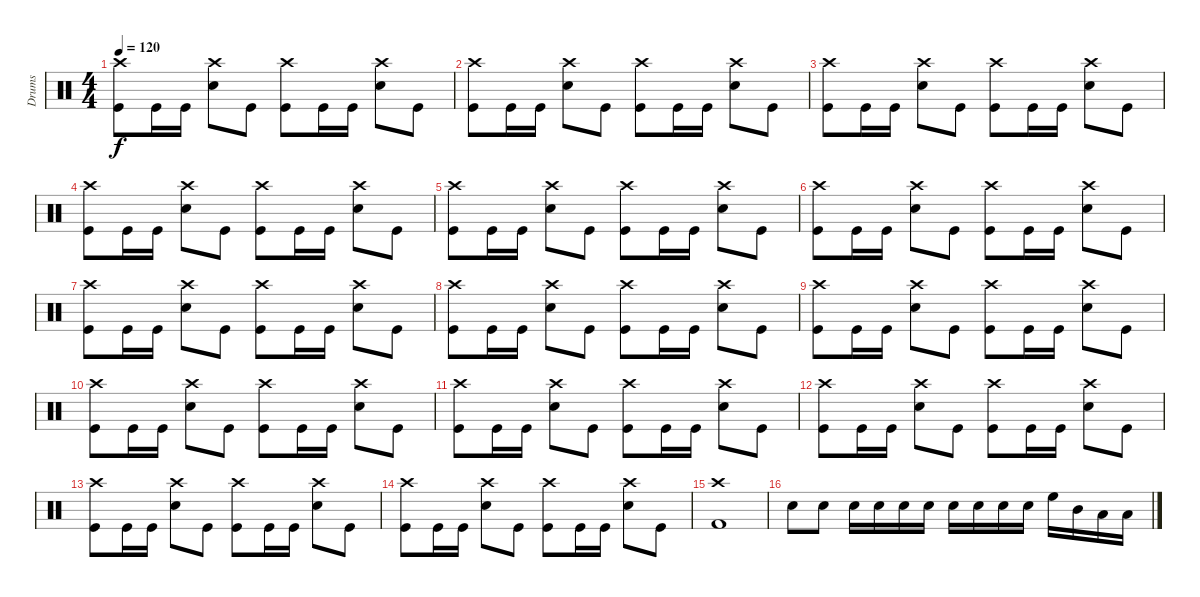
\track ("Drums" "Drums") {instrument percussion}
\staff {score}
\articulation defaults
\ts (4 4)
\tempo 120
\clef neutral
\ks c
("Crash high (hit)" "Kick (hit)").8{dy f} "Kick (hit)".16 "Kick (hit)".16 ("Crash high (hit)" "Snare (hit) 2").8 "Kick (hit)".8 ("Crash high (hit)" "Kick (hit)").8 "Kick (hit)".16 "Kick (hit)".16 ("Crash high (hit)" "Snare (hit) 2").8 "Kick (hit)".8 |
("Crash high (hit)" "Kick (hit)").8 "Kick (hit)".16 "Kick (hit)".16 ("Crash high (hit)" "Snare (hit) 2").8 "Kick (hit)".8 ("Crash high (hit)" "Kick (hit)").8 "Kick (hit)".16 "Kick (hit)".16 ("Crash high (hit)" "Snare (hit) 2").8 "Kick (hit)".8 |
("Crash high (hit)" "Kick (hit)").8 "Kick (hit)".16 "Kick (hit)".16 ("Crash high (hit)" "Snare (hit) 2").8 "Kick (hit)".8 ("Crash high (hit)" "Kick (hit)").8 "Kick (hit)".16 "Kick (hit)".16 ("Crash high (hit)" "Snare (hit) 2").8 "Kick (hit)".8 |
("Crash high (hit)" "Kick (hit)").8 "Kick (hit)".16 "Kick (hit)".16 ("Crash high (hit)" "Snare (hit) 2").8 "Kick (hit)".8 ("Crash high (hit)" "Kick (hit)").8 "Kick (hit)".16 "Kick (hit)".16 ("Crash high (hit)" "Snare (hit) 2").8 "Kick (hit)".8 |
("Crash high (hit)" "Kick (hit)").8 "Kick (hit)".16 "Kick (hit)".16 ("Crash high (hit)" "Snare (hit) 2").8 "Kick (hit)".8 ("Crash high (hit)" "Kick (hit)").8 "Kick (hit)".16 "Kick (hit)".16 ("Crash high (hit)" "Snare (hit) 2").8 "Kick (hit)".8 |
("Crash high (hit)" "Kick (hit)").8 "Kick (hit)".16 "Kick (hit)".16 ("Crash high (hit)" "Snare (hit) 2").8 "Kick (hit)".8 ("Crash high (hit)" "Kick (hit)").8 "Kick (hit)".16 "Kick (hit)".16 ("Crash high (hit)" "Snare (hit) 2").8 "Kick (hit)".8 |
("Crash high (hit)" "Kick (hit)").8 "Kick (hit)".16 "Kick (hit)".16 ("Crash high (hit)" "Snare (hit) 2").8 "Kick (hit)".8 ("Crash high (hit)" "Kick (hit)").8 "Kick (hit)".16 "Kick (hit)".16 ("Crash high (hit)" "Snare (hit) 2").8 "Kick (hit)".8 |
("Crash high (hit)" "Kick (hit)").8 "Kick (hit)".16 "Kick (hit)".16 ("Crash high (hit)" "Snare (hit) 2").8 "Kick (hit)".8 ("Crash high (hit)" "Kick (hit)").8 "Kick (hit)".16 "Kick (hit)".16 ("Crash high (hit)" "Snare (hit) 2").8 "Kick (hit)".8 |
("Crash high (hit)" "Kick (hit)").8 "Kick (hit)".16 "Kick (hit)".16 ("Crash high (hit)" "Snare (hit) 2").8 "Kick (hit)".8 ("Crash high (hit)" "Kick (hit)").8 "Kick (hit)".16 "Kick (hit)".16 ("Crash high (hit)" "Snare (hit) 2").8 "Kick (hit)".8 |
("Crash high (hit)" "Kick (hit)").8 "Kick (hit)".16 "Kick (hit)".16 ("Crash high (hit)" "Snare (hit) 2").8 "Kick (hit)".8 ("Crash high (hit)" "Kick (hit)").8 "Kick (hit)".16 "Kick (hit)".16 ("Crash high (hit)" "Snare (hit) 2").8 "Kick (hit)".8 |
("Crash high (hit)" "Kick (hit)").8 "Kick (hit)".16 "Kick (hit)".16 ("Crash high (hit)" "Snare (hit) 2").8 "Kick (hit)".8 ("Crash high (hit)" "Kick (hit)").8 "Kick (hit)".16 "Kick (hit)".16 ("Crash high (hit)" "Snare (hit) 2").8 "Kick (hit)".8 |
("Crash high (hit)" "Kick (hit)").8 "Kick (hit)".16 "Kick (hit)".16 ("Crash high (hit)" "Snare (hit) 2").8 "Kick (hit)".8 ("Crash high (hit)" "Kick (hit)").8 "Kick (hit)".16 "Kick (hit)".16 ("Crash high (hit)" "Snare (hit) 2").8 "Kick (hit)".8 |
("Crash high (hit)" "Kick (hit)").8 "Kick (hit)".16 "Kick (hit)".16 ("Crash high (hit)" "Snare (hit) 2").8 "Kick (hit)".8 ("Crash high (hit)" "Kick (hit)").8 "Kick (hit)".16 "Kick (hit)".16 ("Crash high (hit)" "Snare (hit) 2").8 "Kick (hit)".8 |
("Crash high (hit)" "Kick (hit)").8 "Kick (hit)".16 "Kick (hit)".16 ("Crash high (hit)" "Snare (hit) 2").8 "Kick (hit)".8 ("Crash high (hit)" "Kick (hit)").8 "Kick (hit)".16 "Kick (hit)".16 ("Crash high (hit)" "Snare (hit) 2").8 "Kick (hit)".8 |
("Crash high (hit)" "Kick (hit) 2").1 |
"Snare (hit) 2".8 "Snare (hit) 2".8 "Snare (hit) 2".16 "Snare (hit) 2".16 "Snare (hit) 2".16 "Snare (hit) 2".16 "Snare (hit) 2".16 "Snare (hit) 2".16 "Snare (hit) 2".16 "Snare (hit) 2".16 "High Floor Tom (hit)".16 "Mid Tom (hit)".16 "Low Tom (hit)".16 "Low Floor Tom (hit)".16
